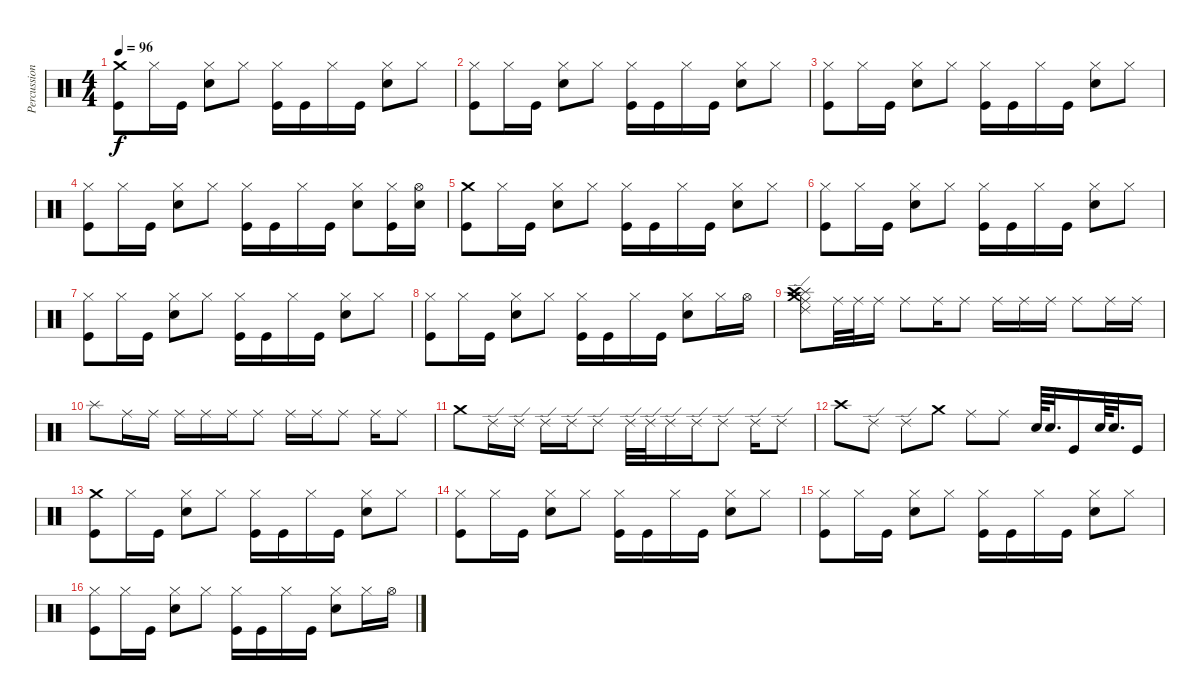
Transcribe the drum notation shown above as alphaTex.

\track ("Percussion" "Percussion") {instrument percussion}
\staff {score}
\articulation defaults
\ts (4 4)
\tempo 96
\clef neutral
\ks c
("Crash medium (hit)" "Kick (hit)").8{dy f} "Hi-Hat (closed)".16 "Kick (hit)".16 ("Hi-Hat (closed)" "Snare (hit) 2").8 "Hi-Hat (closed)".8 ("Hi-Hat (closed)" "Kick (hit)").16 "Kick (hit)".16 "Hi-Hat (closed)".16 "Kick (hit)".16 ("Hi-Hat (closed)" "Snare (hit) 2").8 "Hi-Hat (closed)".8 |
("Hi-Hat (closed)" "Kick (hit)").8 "Hi-Hat (closed)".16 "Kick (hit)".16 ("Hi-Hat (closed)" "Snare (hit) 2").8 "Hi-Hat (closed)".8 ("Hi-Hat (closed)" "Kick (hit)").16 "Kick (hit)".16 "Hi-Hat (closed)".16 "Kick (hit)".16 ("Hi-Hat (closed)" "Snare (hit) 2").8 "Hi-Hat (closed)".8 |
("Hi-Hat (closed)" "Kick (hit)").8 "Hi-Hat (closed)".16 "Kick (hit)".16 ("Hi-Hat (closed)" "Snare (hit) 2").8 "Hi-Hat (closed)".8 ("Hi-Hat (closed)" "Kick (hit)").16 "Kick (hit)".16 "Hi-Hat (closed)".16 "Kick (hit)".16 ("Hi-Hat (closed)" "Snare (hit) 2").8 "Hi-Hat (closed)".8 |
("Hi-Hat (closed)" "Kick (hit)").8 "Hi-Hat (closed)".16 "Kick (hit)".16 ("Hi-Hat (closed)" "Snare (hit) 2").8 "Hi-Hat (closed)".8 ("Hi-Hat (closed)" "Kick (hit)").16 "Kick (hit)".16 "Hi-Hat (closed)".16 "Kick (hit)".16 ("Hi-Hat (closed)" "Snare (hit) 2").8 ("Hi-Hat (closed)" "Kick (hit)").16 ("Hi-Hat (open)" "Snare (hit) 2").16 |
("Crash medium (hit)" "Kick (hit)").8 "Hi-Hat (closed)".16 "Kick (hit)".16 ("Hi-Hat (closed)" "Snare (hit) 2").8 "Hi-Hat (closed)".8 ("Hi-Hat (closed)" "Kick (hit)").16 "Kick (hit)".16 "Hi-Hat (closed)".16 "Kick (hit)".16 ("Hi-Hat (closed)" "Snare (hit) 2").8 "Hi-Hat (closed)".8 |
("Hi-Hat (closed)" "Kick (hit)").8 "Hi-Hat (closed)".16 "Kick (hit)".16 ("Hi-Hat (closed)" "Snare (hit) 2").8 "Hi-Hat (closed)".8 ("Hi-Hat (closed)" "Kick (hit)").16 "Kick (hit)".16 "Hi-Hat (closed)".16 "Kick (hit)".16 ("Hi-Hat (closed)" "Snare (hit) 2").8 "Hi-Hat (closed)".8 |
("Hi-Hat (closed)" "Kick (hit)").8 "Hi-Hat (closed)".16 "Kick (hit)".16 ("Hi-Hat (closed)" "Snare (hit) 2").8 "Hi-Hat (closed)".8 ("Hi-Hat (closed)" "Kick (hit)").16 "Kick (hit)".16 "Hi-Hat (closed)".16 "Kick (hit)".16 ("Hi-Hat (closed)" "Snare (hit) 2").8 "Hi-Hat (closed)".8 |
("Hi-Hat (closed)" "Kick (hit)").8 "Hi-Hat (closed)".16 "Kick (hit)".16 ("Hi-Hat (closed)" "Snare (hit) 2").8 "Hi-Hat (closed)".8 ("Hi-Hat (closed)" "Kick (hit)").16 "Kick (hit)".16 "Hi-Hat (closed)".16 "Kick (hit)".16 ("Hi-Hat (closed)" "Snare (hit) 2").8 "Hi-Hat (closed)".16 "Hi-Hat (open)".16 |
("Splash (hit)" "Ride (middle)" "Ride (edge) 2" "Crash medium (hit)" "Crash high (hit)").8 "Ride (middle)".32 "Ride (middle)".32 "Ride (middle)".16 "Ride (middle)".8 "Ride (middle)".16 "Ride (middle)".8 "Ride (middle)".16 "Ride (middle)".16 "Ride (middle)".16 "Ride (middle)".8 "Ride (middle)".16 "Ride (middle)".16 |
"Splash (hit)".8 "Ride (middle)".16 "Ride (middle)".16 "Ride (middle)".16 "Ride (middle)".16 "Ride (middle)".16 "Ride (middle)".8 "Ride (middle)".16 "Ride (middle)".16 "Ride (middle)".8 "Ride (middle)".16 "Ride (middle)".8 |
"Crash medium (hit)".8 "Ride (edge) 2".16 "Ride (edge) 2".16 "Ride (edge) 2".16 "Ride (edge) 2".16 "Ride (edge) 2".8 "Ride (edge) 2".32 "Ride (edge) 2".32 "Ride (edge) 2".16 "Ride (edge) 2".16 "Ride (edge) 2".8 "Ride (edge) 2".16 "Ride (edge) 2".8 |
"Crash high (hit)".8 "Ride (edge) 2".8 "Ride (edge) 2".8 "Crash medium (hit)".8 "Ride (middle)".8 "Ride (middle)".8 "Snare (hit) 2".64 "Snare (hit) 2".32{d} "Kick (hit)".16 "Snare (hit) 2".64 "Snare (hit) 2".32{d} "Kick (hit)".16 |
("Crash medium (hit)" "Kick (hit)").8 "Hi-Hat (closed)".16 "Kick (hit)".16 ("Hi-Hat (closed)" "Snare (hit) 2").8 "Hi-Hat (closed)".8 ("Hi-Hat (closed)" "Kick (hit)").16 "Kick (hit)".16 "Hi-Hat (closed)".16 "Kick (hit)".16 ("Hi-Hat (closed)" "Snare (hit) 2").8 "Hi-Hat (closed)".8 |
("Hi-Hat (closed)" "Kick (hit)").8 "Hi-Hat (closed)".16 "Kick (hit)".16 ("Hi-Hat (closed)" "Snare (hit) 2").8 "Hi-Hat (closed)".8 ("Hi-Hat (closed)" "Kick (hit)").16 "Kick (hit)".16 "Hi-Hat (closed)".16 "Kick (hit)".16 ("Hi-Hat (closed)" "Snare (hit) 2").8 "Hi-Hat (closed)".8 |
("Hi-Hat (closed)" "Kick (hit)").8 "Hi-Hat (closed)".16 "Kick (hit)".16 ("Hi-Hat (closed)" "Snare (hit) 2").8 "Hi-Hat (closed)".8 ("Hi-Hat (closed)" "Kick (hit)").16 "Kick (hit)".16 "Hi-Hat (closed)".16 "Kick (hit)".16 ("Hi-Hat (closed)" "Snare (hit) 2").8 "Hi-Hat (closed)".8 |
("Hi-Hat (closed)" "Kick (hit)").8 "Hi-Hat (closed)".16 "Kick (hit)".16 ("Hi-Hat (closed)" "Snare (hit) 2").8 "Hi-Hat (closed)".8 ("Hi-Hat (closed)" "Kick (hit)").16 "Kick (hit)".16 "Hi-Hat (closed)".16 "Kick (hit)".16 ("Hi-Hat (closed)" "Snare (hit) 2").8 "Hi-Hat (closed)".16 "Hi-Hat (open)".16
